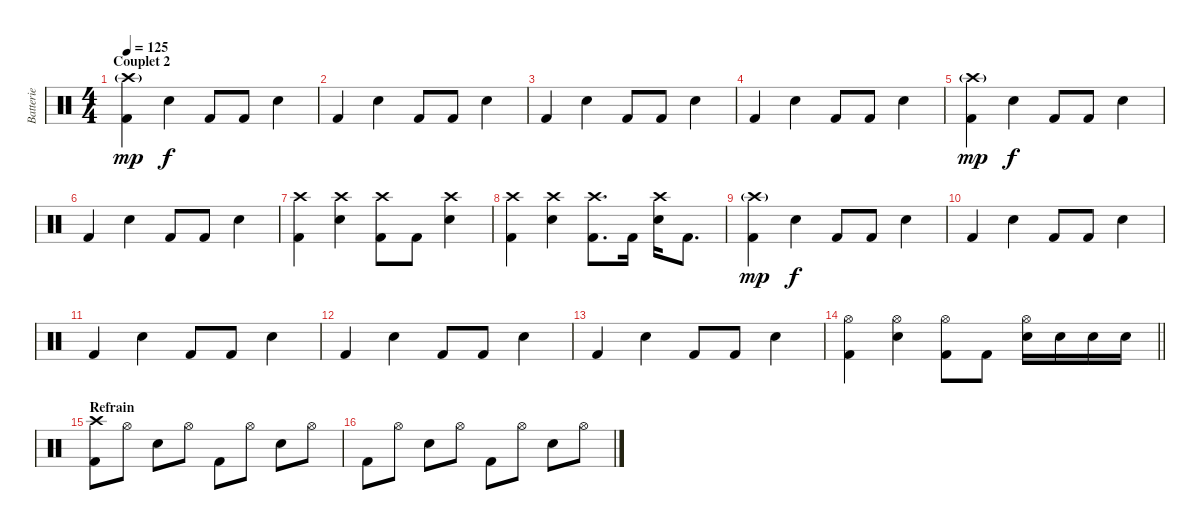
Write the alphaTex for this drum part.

\track ("Batterie" "Batterie") {instrument percussion}
\staff {score}
\articulation defaults
\ts (4 4)
\section ("" "Couplet 2")
\tempo 125
\clef neutral
\ks c
("Crash high (hit)"{g} "Kick (hit) 2").4{dy mp} "Electric Snare (hit)".4{dy f} "Kick (hit) 2".8 "Kick (hit) 2".8 "Electric Snare (hit)".4 |
"Kick (hit) 2".4 "Electric Snare (hit)".4 "Kick (hit) 2".8 "Kick (hit) 2".8 "Electric Snare (hit)".4 |
"Kick (hit) 2".4 "Electric Snare (hit)".4 "Kick (hit) 2".8 "Kick (hit) 2".8 "Electric Snare (hit)".4 |
"Kick (hit) 2".4 "Electric Snare (hit)".4 "Kick (hit) 2".8 "Kick (hit) 2".8 "Electric Snare (hit)".4 |
("Crash high (hit)"{g} "Kick (hit) 2").4{dy mp} "Electric Snare (hit)".4{dy f} "Kick (hit) 2".8 "Kick (hit) 2".8 "Electric Snare (hit)".4 |
"Kick (hit) 2".4 "Electric Snare (hit)".4 "Kick (hit) 2".8 "Kick (hit) 2".8 "Electric Snare (hit)".4 |
("Crash high (hit)" "Kick (hit) 2").4 ("Crash high (hit)" "Electric Snare (hit)").4 ("Crash high (hit)" "Kick (hit) 2").8 "Kick (hit) 2".8 ("Crash high (hit)" "Electric Snare (hit)").4 |
("Crash high (hit)" "Kick (hit) 2").4 ("Crash high (hit)" "Electric Snare (hit)").4 ("Crash high (hit)" "Kick (hit) 2").8{d} "Kick (hit) 2".16 ("Crash high (hit)" "Electric Snare (hit)").16 "Kick (hit) 2".8{d} |
("Crash high (hit)"{g} "Kick (hit) 2").4{dy mp} "Electric Snare (hit)".4{dy f} "Kick (hit) 2".8 "Kick (hit) 2".8 "Electric Snare (hit)".4 |
"Kick (hit) 2".4 "Electric Snare (hit)".4 "Kick (hit) 2".8 "Kick (hit) 2".8 "Electric Snare (hit)".4 |
"Kick (hit) 2".4 "Electric Snare (hit)".4 "Kick (hit) 2".8 "Kick (hit) 2".8 "Electric Snare (hit)".4 |
"Kick (hit) 2".4 "Electric Snare (hit)".4 "Kick (hit) 2".8 "Kick (hit) 2".8 "Electric Snare (hit)".4 |
"Kick (hit) 2".4 "Electric Snare (hit)".4 "Kick (hit) 2".8 "Kick (hit) 2".8 "Electric Snare (hit)".4 |
\barLineRight lightlight
("Hi-Hat (open)" "Kick (hit) 2").4 ("Hi-Hat (open)" "Electric Snare (hit)").4 ("Hi-Hat (open)" "Kick (hit) 2").8 "Kick (hit) 2".8 ("Hi-Hat (open)" "Electric Snare (hit)").16 "Electric Snare (hit)".16 "Electric Snare (hit)".16 "Electric Snare (hit)".16 |
\section ("" "Refrain")
("Crash high (hit)" "Kick (hit) 2").8 "Hi-Hat (open)".8 "Electric Snare (hit)".8 "Hi-Hat (open)".8 "Kick (hit) 2".8 "Hi-Hat (open)".8 "Electric Snare (hit)".8 "Hi-Hat (open)".8 |
"Kick (hit) 2".8 "Hi-Hat (open)".8 "Electric Snare (hit)".8 "Hi-Hat (open)".8 "Kick (hit) 2".8 "Hi-Hat (open)".8 "Electric Snare (hit)".8 "Hi-Hat (open)".8
